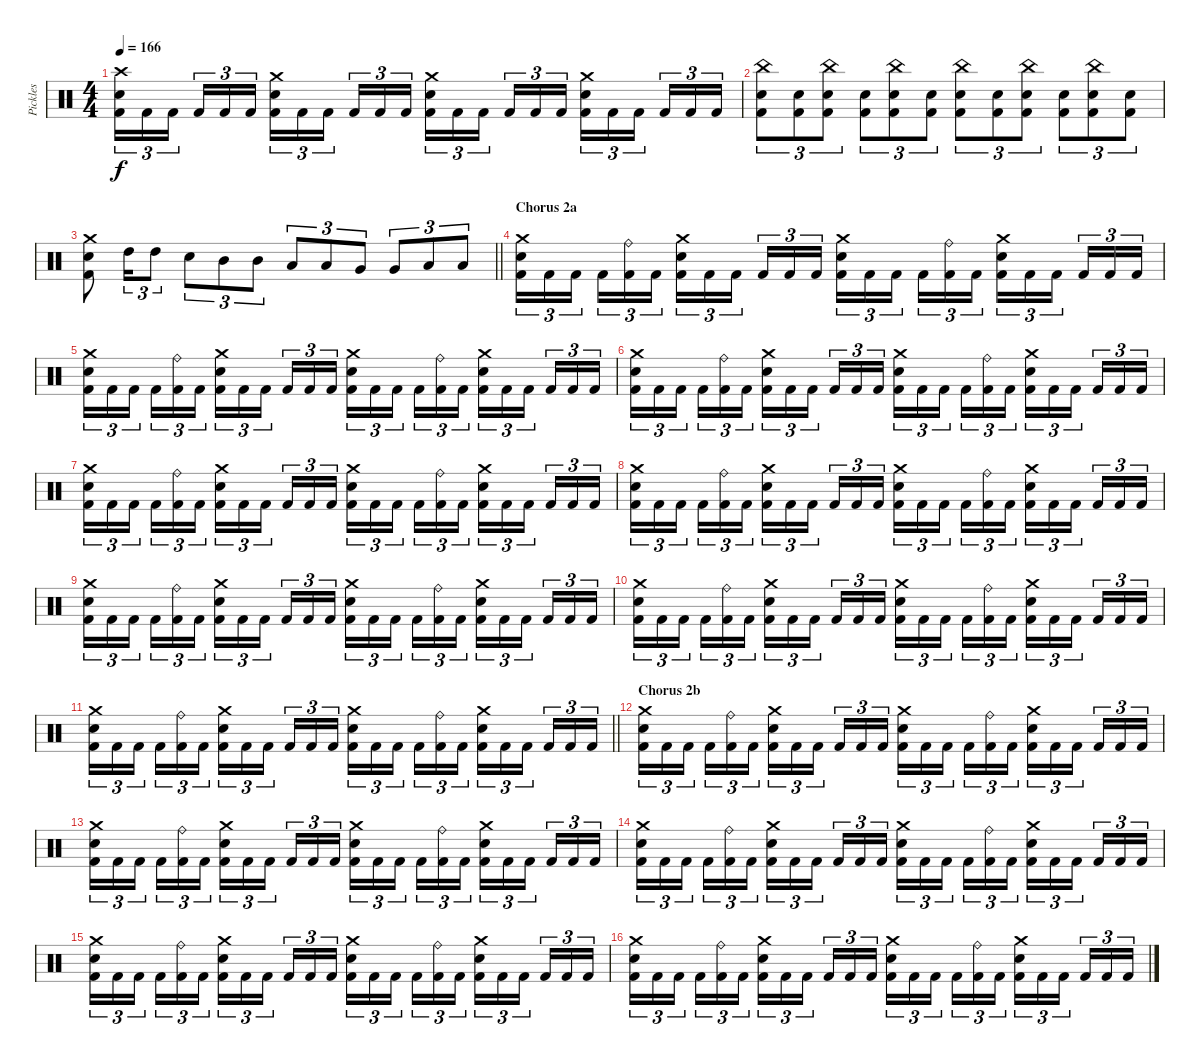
\track ("Pickles" "Pickles") {instrument percussion}
\staff {score}
\articulation defaults
\ts (4 4)
\tempo 166
\clef neutral
\ks c
("Crash high (hit)" "Snare (hit) 2" "Kick (hit) 2").16{tu (3 2) dy f} "Kick (hit) 2".16{tu (3 2)} "Kick (hit) 2".16{tu (3 2) beam splitsecondary} "Kick (hit) 2".16{tu (3 2)} "Kick (hit) 2".16{tu (3 2)} "Kick (hit) 2".16{tu (3 2)} ("Crash medium (hit)" "Snare (hit) 2" "Kick (hit) 2").16{tu (3 2)} "Kick (hit) 2".16{tu (3 2)} "Kick (hit) 2".16{tu (3 2) beam splitsecondary} "Kick (hit) 2".16{tu (3 2)} "Kick (hit) 2".16{tu (3 2)} "Kick (hit) 2".16{tu (3 2)} ("Crash medium (hit)" "Snare (hit) 2" "Kick (hit) 2").16{tu (3 2)} "Kick (hit) 2".16{tu (3 2)} "Kick (hit) 2".16{tu (3 2) beam splitsecondary} "Kick (hit) 2".16{tu (3 2)} "Kick (hit) 2".16{tu (3 2)} "Kick (hit) 2".16{tu (3 2)} ("Crash medium (hit)" "Snare (hit) 2" "Kick (hit) 2").16{tu (3 2)} "Kick (hit) 2".16{tu (3 2)} "Kick (hit) 2".16{tu (3 2) beam splitsecondary} "Kick (hit) 2".16{tu (3 2)} "Kick (hit) 2".16{tu (3 2)} "Kick (hit) 2".16{tu (3 2)} |
("China (hit)" "Snare (hit) 2" "Kick (hit) 2").8{tu (3 2)} ("Snare (hit) 2" "Kick (hit) 2").8{tu (3 2)} ("China (hit)" "Snare (hit) 2" "Kick (hit) 2").8{tu (3 2)} ("Snare (hit) 2" "Kick (hit) 2").8{tu (3 2)} ("China (hit)" "Snare (hit) 2" "Kick (hit) 2").8{tu (3 2)} ("Snare (hit) 2" "Kick (hit) 2").8{tu (3 2)} ("China (hit)" "Snare (hit) 2" "Kick (hit) 2").8{tu (3 2)} ("Snare (hit) 2" "Kick (hit) 2").8{tu (3 2)} ("China (hit)" "Snare (hit) 2" "Kick (hit) 2").8{tu (3 2)} ("Snare (hit) 2" "Kick (hit) 2").8{tu (3 2)} ("China (hit)" "Snare (hit) 2" "Kick (hit) 2").8{tu (3 2)} ("Snare (hit) 2" "Kick (hit) 2").8{tu (3 2)} |
\barLineRight lightlight
("Crash medium (hit)" "Snare (hit) 2" "Kick (hit) 2").8 "High Tom (hit)".16{tu (3 2)} "High Tom (hit)".8{tu (3 2)} "Snare (hit) 2".8{tu (3 2)} "Mid Tom (hit)".8{tu (3 2)} "Mid Tom (hit)".8{tu (3 2)} "Low Tom (hit)".8{tu (3 2)} "Low Tom (hit)".8{tu (3 2)} "Very Low Tom (hit)".8{tu (3 2)} "Very Low Tom (hit)".8{tu (3 2)} "Low Floor Tom (hit)".8{tu (3 2)} "Low Floor Tom (hit)".8{tu (3 2)} |
\section ("" "Chorus 2a")
("Crash medium (hit)" "Snare (hit) 2" "Kick (hit) 2").16{tu (3 2)} "Kick (hit) 2".16{tu (3 2)} "Kick (hit) 2".16{tu (3 2) beam splitsecondary} "Kick (hit) 2".16{tu (3 2)} ("Ride (bell)" "Kick (hit) 2").16{tu (3 2)} "Kick (hit) 2".16{tu (3 2)} ("Crash medium (hit)" "Snare (hit) 2" "Kick (hit) 2").16{tu (3 2)} "Kick (hit) 2".16{tu (3 2)} "Kick (hit) 2".16{tu (3 2) beam splitsecondary} "Kick (hit) 2".16{tu (3 2)} "Kick (hit) 2".16{tu (3 2)} "Kick (hit) 2".16{tu (3 2)} ("Crash medium (hit)" "Snare (hit) 2" "Kick (hit) 2").16{tu (3 2)} "Kick (hit) 2".16{tu (3 2)} "Kick (hit) 2".16{tu (3 2) beam splitsecondary} "Kick (hit) 2".16{tu (3 2)} ("Ride (bell)" "Kick (hit) 2").16{tu (3 2)} "Kick (hit) 2".16{tu (3 2)} ("Crash medium (hit)" "Snare (hit) 2" "Kick (hit) 2").16{tu (3 2)} "Kick (hit) 2".16{tu (3 2)} "Kick (hit) 2".16{tu (3 2) beam splitsecondary} "Kick (hit) 2".16{tu (3 2)} "Kick (hit) 2".16{tu (3 2)} "Kick (hit) 2".16{tu (3 2)} |
("Crash medium (hit)" "Snare (hit) 2" "Kick (hit) 2").16{tu (3 2)} "Kick (hit) 2".16{tu (3 2)} "Kick (hit) 2".16{tu (3 2) beam splitsecondary} "Kick (hit) 2".16{tu (3 2)} ("Ride (bell)" "Kick (hit) 2").16{tu (3 2)} "Kick (hit) 2".16{tu (3 2)} ("Crash medium (hit)" "Snare (hit) 2" "Kick (hit) 2").16{tu (3 2)} "Kick (hit) 2".16{tu (3 2)} "Kick (hit) 2".16{tu (3 2) beam splitsecondary} "Kick (hit) 2".16{tu (3 2)} "Kick (hit) 2".16{tu (3 2)} "Kick (hit) 2".16{tu (3 2)} ("Crash medium (hit)" "Snare (hit) 2" "Kick (hit) 2").16{tu (3 2)} "Kick (hit) 2".16{tu (3 2)} "Kick (hit) 2".16{tu (3 2) beam splitsecondary} "Kick (hit) 2".16{tu (3 2)} ("Ride (bell)" "Kick (hit) 2").16{tu (3 2)} "Kick (hit) 2".16{tu (3 2)} ("Crash medium (hit)" "Snare (hit) 2" "Kick (hit) 2").16{tu (3 2)} "Kick (hit) 2".16{tu (3 2)} "Kick (hit) 2".16{tu (3 2) beam splitsecondary} "Kick (hit) 2".16{tu (3 2)} "Kick (hit) 2".16{tu (3 2)} "Kick (hit) 2".16{tu (3 2)} |
("Crash medium (hit)" "Snare (hit) 2" "Kick (hit) 2").16{tu (3 2)} "Kick (hit) 2".16{tu (3 2)} "Kick (hit) 2".16{tu (3 2) beam splitsecondary} "Kick (hit) 2".16{tu (3 2)} ("Ride (bell)" "Kick (hit) 2").16{tu (3 2)} "Kick (hit) 2".16{tu (3 2)} ("Crash medium (hit)" "Snare (hit) 2" "Kick (hit) 2").16{tu (3 2)} "Kick (hit) 2".16{tu (3 2)} "Kick (hit) 2".16{tu (3 2) beam splitsecondary} "Kick (hit) 2".16{tu (3 2)} "Kick (hit) 2".16{tu (3 2)} "Kick (hit) 2".16{tu (3 2)} ("Crash medium (hit)" "Snare (hit) 2" "Kick (hit) 2").16{tu (3 2)} "Kick (hit) 2".16{tu (3 2)} "Kick (hit) 2".16{tu (3 2) beam splitsecondary} "Kick (hit) 2".16{tu (3 2)} ("Ride (bell)" "Kick (hit) 2").16{tu (3 2)} "Kick (hit) 2".16{tu (3 2)} ("Crash medium (hit)" "Snare (hit) 2" "Kick (hit) 2").16{tu (3 2)} "Kick (hit) 2".16{tu (3 2)} "Kick (hit) 2".16{tu (3 2) beam splitsecondary} "Kick (hit) 2".16{tu (3 2)} "Kick (hit) 2".16{tu (3 2)} "Kick (hit) 2".16{tu (3 2)} |
("Crash medium (hit)" "Snare (hit) 2" "Kick (hit) 2").16{tu (3 2)} "Kick (hit) 2".16{tu (3 2)} "Kick (hit) 2".16{tu (3 2) beam splitsecondary} "Kick (hit) 2".16{tu (3 2)} ("Ride (bell)" "Kick (hit) 2").16{tu (3 2)} "Kick (hit) 2".16{tu (3 2)} ("Crash medium (hit)" "Snare (hit) 2" "Kick (hit) 2").16{tu (3 2)} "Kick (hit) 2".16{tu (3 2)} "Kick (hit) 2".16{tu (3 2) beam splitsecondary} "Kick (hit) 2".16{tu (3 2)} "Kick (hit) 2".16{tu (3 2)} "Kick (hit) 2".16{tu (3 2)} ("Crash medium (hit)" "Snare (hit) 2" "Kick (hit) 2").16{tu (3 2)} "Kick (hit) 2".16{tu (3 2)} "Kick (hit) 2".16{tu (3 2) beam splitsecondary} "Kick (hit) 2".16{tu (3 2)} ("Ride (bell)" "Kick (hit) 2").16{tu (3 2)} "Kick (hit) 2".16{tu (3 2)} ("Crash medium (hit)" "Snare (hit) 2" "Kick (hit) 2").16{tu (3 2)} "Kick (hit) 2".16{tu (3 2)} "Kick (hit) 2".16{tu (3 2) beam splitsecondary} "Kick (hit) 2".16{tu (3 2)} "Kick (hit) 2".16{tu (3 2)} "Kick (hit) 2".16{tu (3 2)} |
("Crash medium (hit)" "Snare (hit) 2" "Kick (hit) 2").16{tu (3 2)} "Kick (hit) 2".16{tu (3 2)} "Kick (hit) 2".16{tu (3 2) beam splitsecondary} "Kick (hit) 2".16{tu (3 2)} ("Ride (bell)" "Kick (hit) 2").16{tu (3 2)} "Kick (hit) 2".16{tu (3 2)} ("Crash medium (hit)" "Snare (hit) 2" "Kick (hit) 2").16{tu (3 2)} "Kick (hit) 2".16{tu (3 2)} "Kick (hit) 2".16{tu (3 2) beam splitsecondary} "Kick (hit) 2".16{tu (3 2)} "Kick (hit) 2".16{tu (3 2)} "Kick (hit) 2".16{tu (3 2)} ("Crash medium (hit)" "Snare (hit) 2" "Kick (hit) 2").16{tu (3 2)} "Kick (hit) 2".16{tu (3 2)} "Kick (hit) 2".16{tu (3 2) beam splitsecondary} "Kick (hit) 2".16{tu (3 2)} ("Ride (bell)" "Kick (hit) 2").16{tu (3 2)} "Kick (hit) 2".16{tu (3 2)} ("Crash medium (hit)" "Snare (hit) 2" "Kick (hit) 2").16{tu (3 2)} "Kick (hit) 2".16{tu (3 2)} "Kick (hit) 2".16{tu (3 2) beam splitsecondary} "Kick (hit) 2".16{tu (3 2)} "Kick (hit) 2".16{tu (3 2)} "Kick (hit) 2".16{tu (3 2)} |
("Crash medium (hit)" "Snare (hit) 2" "Kick (hit) 2").16{tu (3 2)} "Kick (hit) 2".16{tu (3 2)} "Kick (hit) 2".16{tu (3 2) beam splitsecondary} "Kick (hit) 2".16{tu (3 2)} ("Ride (bell)" "Kick (hit) 2").16{tu (3 2)} "Kick (hit) 2".16{tu (3 2)} ("Crash medium (hit)" "Snare (hit) 2" "Kick (hit) 2").16{tu (3 2)} "Kick (hit) 2".16{tu (3 2)} "Kick (hit) 2".16{tu (3 2) beam splitsecondary} "Kick (hit) 2".16{tu (3 2)} "Kick (hit) 2".16{tu (3 2)} "Kick (hit) 2".16{tu (3 2)} ("Crash medium (hit)" "Snare (hit) 2" "Kick (hit) 2").16{tu (3 2)} "Kick (hit) 2".16{tu (3 2)} "Kick (hit) 2".16{tu (3 2) beam splitsecondary} "Kick (hit) 2".16{tu (3 2)} ("Ride (bell)" "Kick (hit) 2").16{tu (3 2)} "Kick (hit) 2".16{tu (3 2)} ("Crash medium (hit)" "Snare (hit) 2" "Kick (hit) 2").16{tu (3 2)} "Kick (hit) 2".16{tu (3 2)} "Kick (hit) 2".16{tu (3 2) beam splitsecondary} "Kick (hit) 2".16{tu (3 2)} "Kick (hit) 2".16{tu (3 2)} "Kick (hit) 2".16{tu (3 2)} |
("Crash medium (hit)" "Snare (hit) 2" "Kick (hit) 2").16{tu (3 2)} "Kick (hit) 2".16{tu (3 2)} "Kick (hit) 2".16{tu (3 2) beam splitsecondary} "Kick (hit) 2".16{tu (3 2)} ("Ride (bell)" "Kick (hit) 2").16{tu (3 2)} "Kick (hit) 2".16{tu (3 2)} ("Crash medium (hit)" "Snare (hit) 2" "Kick (hit) 2").16{tu (3 2)} "Kick (hit) 2".16{tu (3 2)} "Kick (hit) 2".16{tu (3 2) beam splitsecondary} "Kick (hit) 2".16{tu (3 2)} "Kick (hit) 2".16{tu (3 2)} "Kick (hit) 2".16{tu (3 2)} ("Crash medium (hit)" "Snare (hit) 2" "Kick (hit) 2").16{tu (3 2)} "Kick (hit) 2".16{tu (3 2)} "Kick (hit) 2".16{tu (3 2) beam splitsecondary} "Kick (hit) 2".16{tu (3 2)} ("Ride (bell)" "Kick (hit) 2").16{tu (3 2)} "Kick (hit) 2".16{tu (3 2)} ("Crash medium (hit)" "Snare (hit) 2" "Kick (hit) 2").16{tu (3 2)} "Kick (hit) 2".16{tu (3 2)} "Kick (hit) 2".16{tu (3 2) beam splitsecondary} "Kick (hit) 2".16{tu (3 2)} "Kick (hit) 2".16{tu (3 2)} "Kick (hit) 2".16{tu (3 2)} |
\barLineRight lightlight
("Crash medium (hit)" "Snare (hit) 2" "Kick (hit) 2").16{tu (3 2)} "Kick (hit) 2".16{tu (3 2)} "Kick (hit) 2".16{tu (3 2) beam splitsecondary} "Kick (hit) 2".16{tu (3 2)} ("Ride (bell)" "Kick (hit) 2").16{tu (3 2)} "Kick (hit) 2".16{tu (3 2)} ("Crash medium (hit)" "Snare (hit) 2" "Kick (hit) 2").16{tu (3 2)} "Kick (hit) 2".16{tu (3 2)} "Kick (hit) 2".16{tu (3 2) beam splitsecondary} "Kick (hit) 2".16{tu (3 2)} "Kick (hit) 2".16{tu (3 2)} "Kick (hit) 2".16{tu (3 2)} ("Crash medium (hit)" "Snare (hit) 2" "Kick (hit) 2").16{tu (3 2)} "Kick (hit) 2".16{tu (3 2)} "Kick (hit) 2".16{tu (3 2) beam splitsecondary} "Kick (hit) 2".16{tu (3 2)} ("Ride (bell)" "Kick (hit) 2").16{tu (3 2)} "Kick (hit) 2".16{tu (3 2)} ("Crash medium (hit)" "Snare (hit) 2" "Kick (hit) 2").16{tu (3 2)} "Kick (hit) 2".16{tu (3 2)} "Kick (hit) 2".16{tu (3 2) beam splitsecondary} "Kick (hit) 2".16{tu (3 2)} "Kick (hit) 2".16{tu (3 2)} "Kick (hit) 2".16{tu (3 2)} |
\section ("" "Chorus 2b")
("Crash medium (hit)" "Snare (hit) 2" "Kick (hit) 2").16{tu (3 2)} "Kick (hit) 2".16{tu (3 2)} "Kick (hit) 2".16{tu (3 2) beam splitsecondary} "Kick (hit) 2".16{tu (3 2)} ("Ride (bell)" "Kick (hit) 2").16{tu (3 2)} "Kick (hit) 2".16{tu (3 2)} ("Crash medium (hit)" "Snare (hit) 2" "Kick (hit) 2").16{tu (3 2)} "Kick (hit) 2".16{tu (3 2)} "Kick (hit) 2".16{tu (3 2) beam splitsecondary} "Kick (hit) 2".16{tu (3 2)} "Kick (hit) 2".16{tu (3 2)} "Kick (hit) 2".16{tu (3 2)} ("Crash medium (hit)" "Snare (hit) 2" "Kick (hit) 2").16{tu (3 2)} "Kick (hit) 2".16{tu (3 2)} "Kick (hit) 2".16{tu (3 2) beam splitsecondary} "Kick (hit) 2".16{tu (3 2)} ("Ride (bell)" "Kick (hit) 2").16{tu (3 2)} "Kick (hit) 2".16{tu (3 2)} ("Crash medium (hit)" "Snare (hit) 2" "Kick (hit) 2").16{tu (3 2)} "Kick (hit) 2".16{tu (3 2)} "Kick (hit) 2".16{tu (3 2) beam splitsecondary} "Kick (hit) 2".16{tu (3 2)} "Kick (hit) 2".16{tu (3 2)} "Kick (hit) 2".16{tu (3 2)} |
("Crash medium (hit)" "Snare (hit) 2" "Kick (hit) 2").16{tu (3 2)} "Kick (hit) 2".16{tu (3 2)} "Kick (hit) 2".16{tu (3 2) beam splitsecondary} "Kick (hit) 2".16{tu (3 2)} ("Ride (bell)" "Kick (hit) 2").16{tu (3 2)} "Kick (hit) 2".16{tu (3 2)} ("Crash medium (hit)" "Snare (hit) 2" "Kick (hit) 2").16{tu (3 2)} "Kick (hit) 2".16{tu (3 2)} "Kick (hit) 2".16{tu (3 2) beam splitsecondary} "Kick (hit) 2".16{tu (3 2)} "Kick (hit) 2".16{tu (3 2)} "Kick (hit) 2".16{tu (3 2)} ("Crash medium (hit)" "Snare (hit) 2" "Kick (hit) 2").16{tu (3 2)} "Kick (hit) 2".16{tu (3 2)} "Kick (hit) 2".16{tu (3 2) beam splitsecondary} "Kick (hit) 2".16{tu (3 2)} ("Ride (bell)" "Kick (hit) 2").16{tu (3 2)} "Kick (hit) 2".16{tu (3 2)} ("Crash medium (hit)" "Snare (hit) 2" "Kick (hit) 2").16{tu (3 2)} "Kick (hit) 2".16{tu (3 2)} "Kick (hit) 2".16{tu (3 2) beam splitsecondary} "Kick (hit) 2".16{tu (3 2)} "Kick (hit) 2".16{tu (3 2)} "Kick (hit) 2".16{tu (3 2)} |
("Crash medium (hit)" "Snare (hit) 2" "Kick (hit) 2").16{tu (3 2)} "Kick (hit) 2".16{tu (3 2)} "Kick (hit) 2".16{tu (3 2) beam splitsecondary} "Kick (hit) 2".16{tu (3 2)} ("Ride (bell)" "Kick (hit) 2").16{tu (3 2)} "Kick (hit) 2".16{tu (3 2)} ("Crash medium (hit)" "Snare (hit) 2" "Kick (hit) 2").16{tu (3 2)} "Kick (hit) 2".16{tu (3 2)} "Kick (hit) 2".16{tu (3 2) beam splitsecondary} "Kick (hit) 2".16{tu (3 2)} "Kick (hit) 2".16{tu (3 2)} "Kick (hit) 2".16{tu (3 2)} ("Crash medium (hit)" "Snare (hit) 2" "Kick (hit) 2").16{tu (3 2)} "Kick (hit) 2".16{tu (3 2)} "Kick (hit) 2".16{tu (3 2) beam splitsecondary} "Kick (hit) 2".16{tu (3 2)} ("Ride (bell)" "Kick (hit) 2").16{tu (3 2)} "Kick (hit) 2".16{tu (3 2)} ("Crash medium (hit)" "Snare (hit) 2" "Kick (hit) 2").16{tu (3 2)} "Kick (hit) 2".16{tu (3 2)} "Kick (hit) 2".16{tu (3 2) beam splitsecondary} "Kick (hit) 2".16{tu (3 2)} "Kick (hit) 2".16{tu (3 2)} "Kick (hit) 2".16{tu (3 2)} |
("Crash medium (hit)" "Snare (hit) 2" "Kick (hit) 2").16{tu (3 2)} "Kick (hit) 2".16{tu (3 2)} "Kick (hit) 2".16{tu (3 2) beam splitsecondary} "Kick (hit) 2".16{tu (3 2)} ("Ride (bell)" "Kick (hit) 2").16{tu (3 2)} "Kick (hit) 2".16{tu (3 2)} ("Crash medium (hit)" "Snare (hit) 2" "Kick (hit) 2").16{tu (3 2)} "Kick (hit) 2".16{tu (3 2)} "Kick (hit) 2".16{tu (3 2) beam splitsecondary} "Kick (hit) 2".16{tu (3 2)} "Kick (hit) 2".16{tu (3 2)} "Kick (hit) 2".16{tu (3 2)} ("Crash medium (hit)" "Snare (hit) 2" "Kick (hit) 2").16{tu (3 2)} "Kick (hit) 2".16{tu (3 2)} "Kick (hit) 2".16{tu (3 2) beam splitsecondary} "Kick (hit) 2".16{tu (3 2)} ("Ride (bell)" "Kick (hit) 2").16{tu (3 2)} "Kick (hit) 2".16{tu (3 2)} ("Crash medium (hit)" "Snare (hit) 2" "Kick (hit) 2").16{tu (3 2)} "Kick (hit) 2".16{tu (3 2)} "Kick (hit) 2".16{tu (3 2) beam splitsecondary} "Kick (hit) 2".16{tu (3 2)} "Kick (hit) 2".16{tu (3 2)} "Kick (hit) 2".16{tu (3 2)} |
("Crash medium (hit)" "Snare (hit) 2" "Kick (hit) 2").16{tu (3 2)} "Kick (hit) 2".16{tu (3 2)} "Kick (hit) 2".16{tu (3 2) beam splitsecondary} "Kick (hit) 2".16{tu (3 2)} ("Ride (bell)" "Kick (hit) 2").16{tu (3 2)} "Kick (hit) 2".16{tu (3 2)} ("Crash medium (hit)" "Snare (hit) 2" "Kick (hit) 2").16{tu (3 2)} "Kick (hit) 2".16{tu (3 2)} "Kick (hit) 2".16{tu (3 2) beam splitsecondary} "Kick (hit) 2".16{tu (3 2)} "Kick (hit) 2".16{tu (3 2)} "Kick (hit) 2".16{tu (3 2)} ("Crash medium (hit)" "Snare (hit) 2" "Kick (hit) 2").16{tu (3 2)} "Kick (hit) 2".16{tu (3 2)} "Kick (hit) 2".16{tu (3 2) beam splitsecondary} "Kick (hit) 2".16{tu (3 2)} ("Ride (bell)" "Kick (hit) 2").16{tu (3 2)} "Kick (hit) 2".16{tu (3 2)} ("Crash medium (hit)" "Snare (hit) 2" "Kick (hit) 2").16{tu (3 2)} "Kick (hit) 2".16{tu (3 2)} "Kick (hit) 2".16{tu (3 2) beam splitsecondary} "Kick (hit) 2".16{tu (3 2)} "Kick (hit) 2".16{tu (3 2)} "Kick (hit) 2".16{tu (3 2)}
